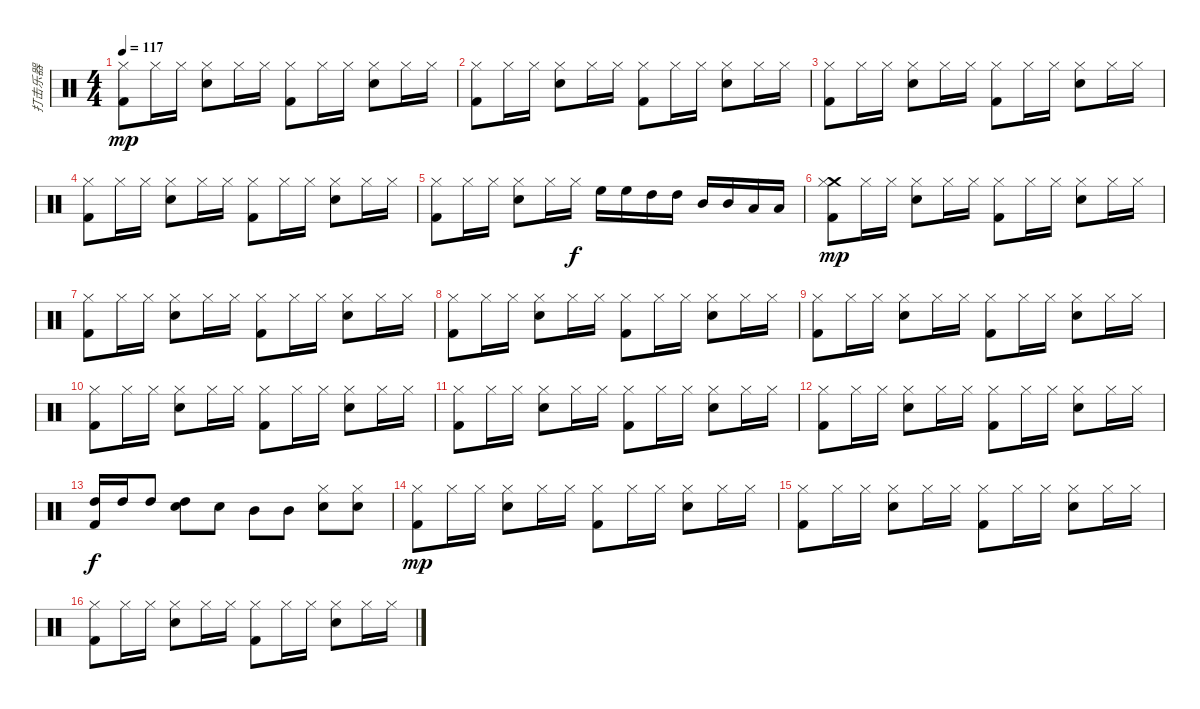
\track ("打击乐器" "打击乐器") {instrument percussion}
\staff {score}
\articulation defaults
\ts (4 4)
\tempo 117
\clef neutral
\ks c
("Hi-Hat (closed)" "Kick (hit) 2").8{dy mp} "Hi-Hat (closed)".16 "Hi-Hat (closed)".16 ("Hi-Hat (closed)" "Snare (hit) 2").8 "Hi-Hat (closed)".16 "Hi-Hat (closed)".16 ("Hi-Hat (closed)" "Kick (hit) 2").8 "Hi-Hat (closed)".16 "Hi-Hat (closed)".16 ("Hi-Hat (closed)" "Snare (hit) 2").8 "Hi-Hat (closed)".16 "Hi-Hat (closed)".16 |
("Hi-Hat (closed)" "Kick (hit) 2").8 "Hi-Hat (closed)".16 "Hi-Hat (closed)".16 ("Hi-Hat (closed)" "Snare (hit) 2").8 "Hi-Hat (closed)".16 "Hi-Hat (closed)".16 ("Hi-Hat (closed)" "Kick (hit) 2").8 "Hi-Hat (closed)".16 "Hi-Hat (closed)".16 ("Hi-Hat (closed)" "Snare (hit) 2").8 "Hi-Hat (closed)".16 "Hi-Hat (closed)".16 |
("Hi-Hat (closed)" "Kick (hit) 2").8 "Hi-Hat (closed)".16 "Hi-Hat (closed)".16 ("Hi-Hat (closed)" "Snare (hit) 2").8 "Hi-Hat (closed)".16 "Hi-Hat (closed)".16 ("Hi-Hat (closed)" "Kick (hit) 2").8 "Hi-Hat (closed)".16 "Hi-Hat (closed)".16 ("Hi-Hat (closed)" "Snare (hit) 2").8 "Hi-Hat (closed)".16 "Hi-Hat (closed)".16 |
("Hi-Hat (closed)" "Kick (hit) 2").8 "Hi-Hat (closed)".16 "Hi-Hat (closed)".16 ("Hi-Hat (closed)" "Snare (hit) 2").8 "Hi-Hat (closed)".16 "Hi-Hat (closed)".16 ("Hi-Hat (closed)" "Kick (hit) 2").8 "Hi-Hat (closed)".16 "Hi-Hat (closed)".16 ("Hi-Hat (closed)" "Snare (hit) 2").8 "Hi-Hat (closed)".16 "Hi-Hat (closed)".16 |
("Hi-Hat (closed)" "Kick (hit) 2").8 "Hi-Hat (closed)".16 "Hi-Hat (closed)".16 ("Hi-Hat (closed)" "Snare (hit) 2").8 "Hi-Hat (closed)".16 "Hi-Hat (closed)".16{dy f} "High Floor Tom (hit)".16 "High Floor Tom (hit)".16 "High Tom (hit)".16 "High Tom (hit)".16 "Mid Tom (hit)".16 "Mid Tom (hit)".16 "Low Tom (hit)".16 "Low Tom (hit)".16 |
("Crash medium (hit)" "Hi-Hat (closed)" "Kick (hit) 2").8{dy mp} "Hi-Hat (closed)".16 "Hi-Hat (closed)".16 ("Hi-Hat (closed)" "Snare (hit) 2").8 "Hi-Hat (closed)".16 "Hi-Hat (closed)".16 ("Hi-Hat (closed)" "Kick (hit) 2").8 "Hi-Hat (closed)".16 "Hi-Hat (closed)".16 ("Hi-Hat (closed)" "Snare (hit) 2").8 "Hi-Hat (closed)".16 "Hi-Hat (closed)".16 |
("Hi-Hat (closed)" "Kick (hit) 2").8 "Hi-Hat (closed)".16 "Hi-Hat (closed)".16 ("Hi-Hat (closed)" "Snare (hit) 2").8 "Hi-Hat (closed)".16 "Hi-Hat (closed)".16 ("Hi-Hat (closed)" "Kick (hit) 2").8 "Hi-Hat (closed)".16 "Hi-Hat (closed)".16 ("Hi-Hat (closed)" "Snare (hit) 2").8 "Hi-Hat (closed)".16 "Hi-Hat (closed)".16 |
("Hi-Hat (closed)" "Kick (hit) 2").8 "Hi-Hat (closed)".16 "Hi-Hat (closed)".16 ("Hi-Hat (closed)" "Snare (hit) 2").8 "Hi-Hat (closed)".16 "Hi-Hat (closed)".16 ("Hi-Hat (closed)" "Kick (hit) 2").8 "Hi-Hat (closed)".16 "Hi-Hat (closed)".16 ("Hi-Hat (closed)" "Snare (hit) 2").8 "Hi-Hat (closed)".16 "Hi-Hat (closed)".16 |
("Hi-Hat (closed)" "Kick (hit) 2").8 "Hi-Hat (closed)".16 "Hi-Hat (closed)".16 ("Hi-Hat (closed)" "Snare (hit) 2").8 "Hi-Hat (closed)".16 "Hi-Hat (closed)".16 ("Hi-Hat (closed)" "Kick (hit) 2").8 "Hi-Hat (closed)".16 "Hi-Hat (closed)".16 ("Hi-Hat (closed)" "Snare (hit) 2").8 "Hi-Hat (closed)".16 "Hi-Hat (closed)".16 |
("Hi-Hat (closed)" "Kick (hit) 2").8 "Hi-Hat (closed)".16 "Hi-Hat (closed)".16 ("Hi-Hat (closed)" "Snare (hit) 2").8 "Hi-Hat (closed)".16 "Hi-Hat (closed)".16 ("Hi-Hat (closed)" "Kick (hit) 2").8 "Hi-Hat (closed)".16 "Hi-Hat (closed)".16 ("Hi-Hat (closed)" "Snare (hit) 2").8 "Hi-Hat (closed)".16 "Hi-Hat (closed)".16 |
("Hi-Hat (closed)" "Kick (hit) 2").8 "Hi-Hat (closed)".16 "Hi-Hat (closed)".16 ("Hi-Hat (closed)" "Snare (hit) 2").8 "Hi-Hat (closed)".16 "Hi-Hat (closed)".16 ("Hi-Hat (closed)" "Kick (hit) 2").8 "Hi-Hat (closed)".16 "Hi-Hat (closed)".16 ("Hi-Hat (closed)" "Snare (hit) 2").8 "Hi-Hat (closed)".16 "Hi-Hat (closed)".16 |
("Hi-Hat (closed)" "Kick (hit) 2").8 "Hi-Hat (closed)".16 "Hi-Hat (closed)".16 ("Hi-Hat (closed)" "Snare (hit) 2").8 "Hi-Hat (closed)".16 "Hi-Hat (closed)".16 ("Hi-Hat (closed)" "Kick (hit) 2").8 "Hi-Hat (closed)".16 "Hi-Hat (closed)".16 ("Hi-Hat (closed)" "Snare (hit) 2").8 "Hi-Hat (closed)".16 "Hi-Hat (closed)".16 |
("High Tom (hit)" "Kick (hit) 2").16{dy f} "High Tom (hit)".16 "High Tom (hit)".8 ("High Tom (hit)" "Snare (hit) 2").8 "Snare (hit) 2".8 "Mid Tom (hit)".8 "Mid Tom (hit)".8 ("Hi-Hat (closed)" "Snare (hit) 2").8 ("Hi-Hat (closed)" "Snare (hit) 2").8 |
("Hi-Hat (closed)" "Kick (hit) 2").8{dy mp} "Hi-Hat (closed)".16 "Hi-Hat (closed)".16 ("Hi-Hat (closed)" "Snare (hit) 2").8 "Hi-Hat (closed)".16 "Hi-Hat (closed)".16 ("Hi-Hat (closed)" "Kick (hit) 2").8 "Hi-Hat (closed)".16 "Hi-Hat (closed)".16 ("Hi-Hat (closed)" "Snare (hit) 2").8 "Hi-Hat (closed)".16 "Hi-Hat (closed)".16 |
("Hi-Hat (closed)" "Kick (hit) 2").8 "Hi-Hat (closed)".16 "Hi-Hat (closed)".16 ("Hi-Hat (closed)" "Snare (hit) 2").8 "Hi-Hat (closed)".16 "Hi-Hat (closed)".16 ("Hi-Hat (closed)" "Kick (hit) 2").8 "Hi-Hat (closed)".16 "Hi-Hat (closed)".16 ("Hi-Hat (closed)" "Snare (hit) 2").8 "Hi-Hat (closed)".16 "Hi-Hat (closed)".16 |
("Hi-Hat (closed)" "Kick (hit) 2").8 "Hi-Hat (closed)".16 "Hi-Hat (closed)".16 ("Hi-Hat (closed)" "Snare (hit) 2").8 "Hi-Hat (closed)".16 "Hi-Hat (closed)".16 ("Hi-Hat (closed)" "Kick (hit) 2").8 "Hi-Hat (closed)".16 "Hi-Hat (closed)".16 ("Hi-Hat (closed)" "Snare (hit) 2").8 "Hi-Hat (closed)".16 "Hi-Hat (closed)".16
